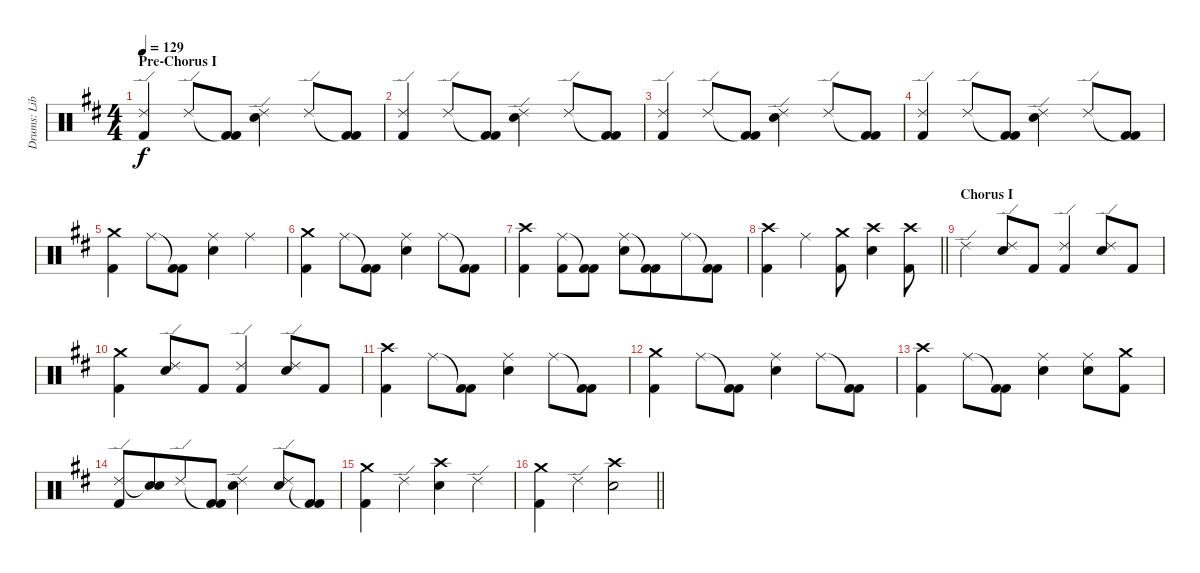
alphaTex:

\track ("Drums: Liberty" "Drums: Lib") {instrument percussion}
\staff {score}
\articulation defaults
\ts (4 4)
\section ("" "Pre-Chorus I")
\tempo 129
\clef neutral
\ks d
("Ride (edge) 2" "Kick (hit) 2").4{dy f} "Ride (edge) 2".8 ("Kick (hit) 2"{t} "Kick (hit) 2").8 ("Ride (edge) 2" "Electric Snare (hit)").4 "Ride (edge) 2".8 ("Kick (hit) 2"{t} "Kick (hit) 2").8 |
("Ride (edge) 2" "Kick (hit) 2").4 "Ride (edge) 2".8 ("Kick (hit) 2"{t} "Kick (hit) 2").8 ("Ride (edge) 2" "Electric Snare (hit)").4 "Ride (edge) 2".8 ("Kick (hit) 2"{t} "Kick (hit) 2").8 |
("Ride (edge) 2" "Kick (hit) 2").4 "Ride (edge) 2".8 ("Kick (hit) 2"{t} "Kick (hit) 2").8 ("Ride (edge) 2" "Electric Snare (hit)").4 "Ride (edge) 2".8 ("Kick (hit) 2"{t} "Kick (hit) 2").8 |
("Ride (edge) 2" "Kick (hit) 2").4 "Ride (edge) 2".8 ("Kick (hit) 2"{t} "Kick (hit) 2").8 ("Ride (edge) 2" "Electric Snare (hit)").4 "Ride (edge) 2".8 ("Kick (hit) 2"{t} "Kick (hit) 2").8 |
("Crash medium (hit)" "Kick (hit) 2").4 "Ride (middle)".8 ("Kick (hit) 2"{t} "Kick (hit) 2").8 ("Ride (middle)" "Electric Snare (hit)").4 "Ride (middle)".4 |
("Crash medium (hit)" "Kick (hit) 2").4 "Ride (middle)".8 ("Kick (hit) 2"{t} "Kick (hit) 2").8 ("Ride (middle)" "Electric Snare (hit)").4 "Ride (middle)".8 ("Kick (hit) 2"{t} "Kick (hit) 2").8 |
("Crash high (hit)" "Kick (hit) 2").4 ("Ride (middle)" "Kick (hit) 2").8 ("Kick (hit) 2"{t} "Kick (hit) 2").8 ("Ride (middle)" "Electric Snare (hit)").8 ("Kick (hit) 2"{t} "Kick (hit) 2").8{beam merge} "Ride (middle)".8 ("Kick (hit) 2"{t} "Kick (hit) 2").8 |
\barLineRight lightlight
("Crash high (hit)" "Kick (hit) 2").4 "Ride (middle)".4 ("Crash medium (hit)" "Kick (hit) 2").8 ("Crash high (hit)" "Electric Snare (hit)").4 ("Crash high (hit)" "Kick (hit) 2").8 |
\section ("" "Chorus I")
"Ride (edge) 2".4 ("Ride (edge) 2" "Electric Snare (hit)").8 "Kick (hit) 2".8 ("Ride (edge) 2" "Kick (hit) 2").4 ("Ride (edge) 2" "Electric Snare (hit)").8 "Kick (hit) 2".8 |
("Crash medium (hit)" "Kick (hit) 2").4 ("Ride (edge) 2" "Electric Snare (hit)").8 "Kick (hit) 2".8 ("Ride (edge) 2" "Kick (hit) 2").4 ("Ride (edge) 2" "Electric Snare (hit)").8 "Kick (hit) 2".8 |
("Crash high (hit)" "Kick (hit) 2").4 "Ride (middle)".8 ("Kick (hit) 2"{t} "Kick (hit) 2").8 ("Ride (middle)" "Electric Snare (hit)").4 "Ride (middle)".8 ("Kick (hit) 2"{t} "Kick (hit) 2").8 |
("Crash medium (hit)" "Kick (hit) 2").4 "Ride (middle)".8 ("Kick (hit) 2"{t} "Kick (hit) 2").8 ("Ride (middle)" "Electric Snare (hit)").4 "Ride (middle)".8 ("Kick (hit) 2"{t} "Kick (hit) 2").8 |
("Crash high (hit)" "Kick (hit) 2").4 "Ride (middle)".8 ("Kick (hit) 2"{t} "Kick (hit) 2").8 ("Ride (middle)" "Electric Snare (hit)").4 ("Ride (middle)" "Electric Snare (hit)").8 ("Crash medium (hit)" "Kick (hit) 2").8 |
("Ride (edge) 2" "Kick (hit) 2").8 ("Electric Snare (hit)"{t} "Electric Snare (hit)").8{beam merge} "Ride (edge) 2".8 ("Kick (hit) 2"{t} "Kick (hit) 2").8 ("Ride (edge) 2" "Electric Snare (hit)").4 ("Ride (edge) 2" "Electric Snare (hit)").8 ("Kick (hit) 2"{t} "Kick (hit) 2").8 |
("Crash medium (hit)" "Kick (hit) 2").4 "Ride (edge) 2".4 ("Crash high (hit)" "Electric Snare (hit)").4 "Ride (edge) 2".4 |
\barLineRight lightlight
("Crash medium (hit)" "Kick (hit) 2").4 "Ride (edge) 2".4 ("Crash high (hit)" "Electric Snare (hit)").2
